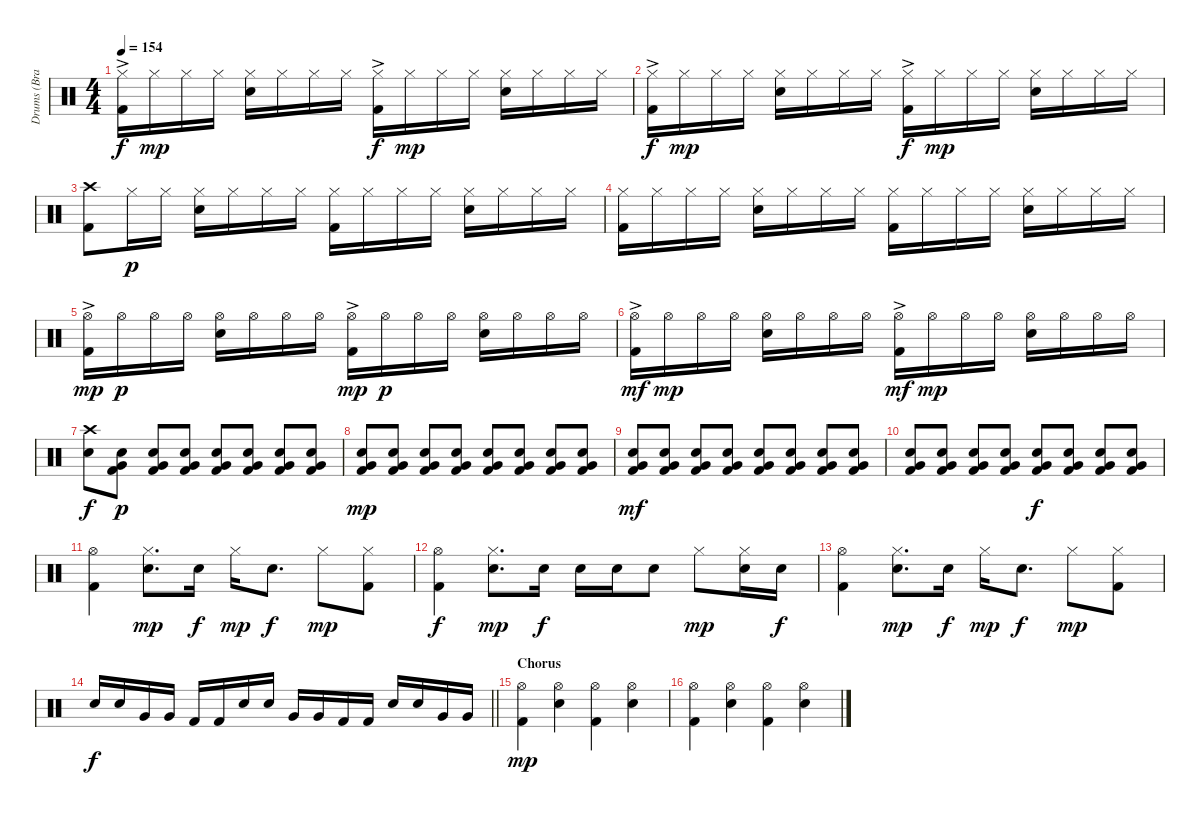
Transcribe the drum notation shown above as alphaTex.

\track ("Drums (Brandon Saller)" "Drums (Bra") {instrument percussion}
\staff {score}
\articulation defaults
\ts (4 4)
\tempo 154
\clef neutral
\ks c
("Hi-Hat (closed)"{ac} "Kick (hit) 2").16{dy f} "Hi-Hat (closed)".16{dy mp} "Hi-Hat (closed)".16 "Hi-Hat (closed)".16 ("Hi-Hat (closed)" "Electric Snare (hit)").16 "Hi-Hat (closed)".16 "Hi-Hat (closed)".16 "Hi-Hat (closed)".16 ("Hi-Hat (closed)"{ac} "Kick (hit) 2").16{dy f} "Hi-Hat (closed)".16{dy mp} "Hi-Hat (closed)".16 "Hi-Hat (closed)".16 ("Hi-Hat (closed)" "Electric Snare (hit)").16 "Hi-Hat (closed)".16 "Hi-Hat (closed)".16 "Hi-Hat (closed)".16 |
("Hi-Hat (closed)"{ac} "Kick (hit) 2").16{dy f} "Hi-Hat (closed)".16{dy mp} "Hi-Hat (closed)".16 "Hi-Hat (closed)".16 ("Hi-Hat (closed)" "Electric Snare (hit)").16 "Hi-Hat (closed)".16 "Hi-Hat (closed)".16 "Hi-Hat (closed)".16 ("Hi-Hat (closed)"{ac} "Kick (hit) 2").16{dy f} "Hi-Hat (closed)".16{dy mp} "Hi-Hat (closed)".16 "Hi-Hat (closed)".16 ("Hi-Hat (closed)" "Electric Snare (hit)").16 "Hi-Hat (closed)".16 "Hi-Hat (closed)".16 "Hi-Hat (closed)".16 |
("Crash high (hit)" "Kick (hit) 2").8 "Hi-Hat (closed)".16{dy p} "Hi-Hat (closed)".16 ("Hi-Hat (closed)" "Electric Snare (hit)").16 "Hi-Hat (closed)".16 "Hi-Hat (closed)".16 "Hi-Hat (closed)".16 ("Hi-Hat (closed)" "Kick (hit) 2").16 "Hi-Hat (closed)".16 "Hi-Hat (closed)".16 "Hi-Hat (closed)".16 ("Hi-Hat (closed)" "Electric Snare (hit)").16 "Hi-Hat (closed)".16 "Hi-Hat (closed)".16 "Hi-Hat (closed)".16 |
("Hi-Hat (closed)" "Kick (hit) 2").16 "Hi-Hat (closed)".16 "Hi-Hat (closed)".16 "Hi-Hat (closed)".16 ("Hi-Hat (closed)" "Electric Snare (hit)").16 "Hi-Hat (closed)".16 "Hi-Hat (closed)".16 "Hi-Hat (closed)".16 ("Hi-Hat (closed)" "Kick (hit) 2").16 "Hi-Hat (closed)".16 "Hi-Hat (closed)".16 "Hi-Hat (closed)".16 ("Hi-Hat (closed)" "Electric Snare (hit)").16 "Hi-Hat (closed)".16 "Hi-Hat (closed)".16 "Hi-Hat (closed)".16 |
("Hi-Hat (open)"{ac} "Kick (hit) 2").16{dy mp} "Hi-Hat (open)".16{dy p} "Hi-Hat (open)".16 "Hi-Hat (open)".16 ("Hi-Hat (open)" "Electric Snare (hit)").16 "Hi-Hat (open)".16 "Hi-Hat (open)".16 "Hi-Hat (open)".16 ("Hi-Hat (open)"{ac} "Kick (hit) 2").16{dy mp} "Hi-Hat (open)".16{dy p} "Hi-Hat (open)".16 "Hi-Hat (open)".16 ("Hi-Hat (open)" "Electric Snare (hit)").16 "Hi-Hat (open)".16 "Hi-Hat (open)".16 "Hi-Hat (open)".16 |
("Hi-Hat (open)"{ac} "Kick (hit) 2").16{dy mf} "Hi-Hat (open)".16{dy mp} "Hi-Hat (open)".16 "Hi-Hat (open)".16 ("Hi-Hat (open)" "Electric Snare (hit)").16 "Hi-Hat (open)".16 "Hi-Hat (open)".16 "Hi-Hat (open)".16 ("Hi-Hat (open)"{ac} "Kick (hit) 2").16{dy mf} "Hi-Hat (open)".16{dy mp} "Hi-Hat (open)".16 "Hi-Hat (open)".16 ("Hi-Hat (open)" "Electric Snare (hit)").16 "Hi-Hat (open)".16 "Hi-Hat (open)".16 "Hi-Hat (open)".16 |
("Crash high (hit)" "Electric Snare (hit)").8{dy f} ("Electric Snare (hit)" "Very Low Tom (hit)" "Kick (hit) 2").8{dy p} ("Electric Snare (hit)" "Very Low Tom (hit)" "Kick (hit) 2").8 ("Electric Snare (hit)" "Very Low Tom (hit)" "Kick (hit) 2").8 ("Electric Snare (hit)" "Very Low Tom (hit)" "Kick (hit) 2").8 ("Electric Snare (hit)" "Very Low Tom (hit)" "Kick (hit) 2").8 ("Electric Snare (hit)" "Very Low Tom (hit)" "Kick (hit) 2").8 ("Electric Snare (hit)" "Very Low Tom (hit)" "Kick (hit) 2").8 |
("Electric Snare (hit)" "Very Low Tom (hit)" "Kick (hit) 2").8{dy mp} ("Electric Snare (hit)" "Very Low Tom (hit)" "Kick (hit) 2").8 ("Electric Snare (hit)" "Very Low Tom (hit)" "Kick (hit) 2").8 ("Electric Snare (hit)" "Very Low Tom (hit)" "Kick (hit) 2").8 ("Electric Snare (hit)" "Very Low Tom (hit)" "Kick (hit) 2").8 ("Electric Snare (hit)" "Very Low Tom (hit)" "Kick (hit) 2").8 ("Electric Snare (hit)" "Very Low Tom (hit)" "Kick (hit) 2").8 ("Electric Snare (hit)" "Very Low Tom (hit)" "Kick (hit) 2").8 |
("Electric Snare (hit)" "Very Low Tom (hit)" "Kick (hit) 2").8{dy mf} ("Electric Snare (hit)" "Very Low Tom (hit)" "Kick (hit) 2").8 ("Electric Snare (hit)" "Very Low Tom (hit)" "Kick (hit) 2").8 ("Electric Snare (hit)" "Very Low Tom (hit)" "Kick (hit) 2").8 ("Electric Snare (hit)" "Very Low Tom (hit)" "Kick (hit) 2").8 ("Electric Snare (hit)" "Very Low Tom (hit)" "Kick (hit) 2").8 ("Electric Snare (hit)" "Very Low Tom (hit)" "Kick (hit) 2").8 ("Electric Snare (hit)" "Very Low Tom (hit)" "Kick (hit) 2").8 |
("Electric Snare (hit)" "Very Low Tom (hit)" "Kick (hit) 2").8 ("Electric Snare (hit)" "Very Low Tom (hit)" "Kick (hit) 2").8 ("Electric Snare (hit)" "Very Low Tom (hit)" "Kick (hit) 2").8 ("Electric Snare (hit)" "Very Low Tom (hit)" "Kick (hit) 2").8 ("Electric Snare (hit)" "Very Low Tom (hit)" "Kick (hit) 2").8{dy f} ("Electric Snare (hit)" "Very Low Tom (hit)" "Kick (hit) 2").8 ("Electric Snare (hit)" "Very Low Tom (hit)" "Kick (hit) 2").8 ("Electric Snare (hit)" "Very Low Tom (hit)" "Kick (hit) 2").8 |
("Hi-Hat (open)" "Kick (hit) 2").4{volume 7} ("Hi-Hat (closed)" "Electric Snare (hit)").8{d dy mp} "Electric Snare (hit)".16{dy f} "Hi-Hat (closed)".16{dy mp} "Electric Snare (hit)".8{d dy f} "Hi-Hat (closed)".8{dy mp} ("Hi-Hat (closed)" "Kick (hit) 2").8 |
("Hi-Hat (open)" "Kick (hit) 2").4{dy f} ("Hi-Hat (closed)" "Electric Snare (hit)").8{d dy mp} "Electric Snare (hit)".16{dy f} "Electric Snare (hit)".16 "Electric Snare (hit)".16 "Electric Snare (hit)".8 "Hi-Hat (closed)".8{dy mp} ("Hi-Hat (closed)" "Electric Snare (hit)").16 "Electric Snare (hit)".16{dy f} |
("Hi-Hat (open)" "Kick (hit) 2").4 ("Hi-Hat (closed)" "Electric Snare (hit)").8{d dy mp} "Electric Snare (hit)".16{dy f} "Hi-Hat (closed)".16{dy mp} "Electric Snare (hit)".8{d dy f} "Hi-Hat (closed)".8{dy mp} ("Hi-Hat (closed)" "Kick (hit) 2").8 |
\barLineRight lightlight "Electric Snare (hit)".16{dy f volume 9} "Electric Snare (hit)".16 "Very Low Tom (hit)".16 "Very Low Tom (hit)".16 "Kick (hit) 2".16 "Kick (hit) 2".16 "Electric Snare (hit)".16 "Electric Snare (hit)".16 "Very Low Tom (hit)".16 "Very Low Tom (hit)".16 "Kick (hit) 2".16 "Kick (hit) 2".16 "Electric Snare (hit)".16 "Electric Snare (hit)".16 "Very Low Tom (hit)".16 "Very Low Tom (hit)".16
|
\section ("" "Chorus")
("Hi-Hat (open)" "Kick (hit) 2").4{dy mp volume 10} ("Hi-Hat (open)" "Electric Snare (hit)").4 ("Hi-Hat (open)" "Kick (hit) 2").4 ("Hi-Hat (open)" "Electric Snare (hit)").4 |
("Hi-Hat (open)" "Kick (hit) 2").4 ("Hi-Hat (open)" "Electric Snare (hit)").4 ("Hi-Hat (open)" "Kick (hit) 2").4 ("Hi-Hat (open)" "Electric Snare (hit)").4
